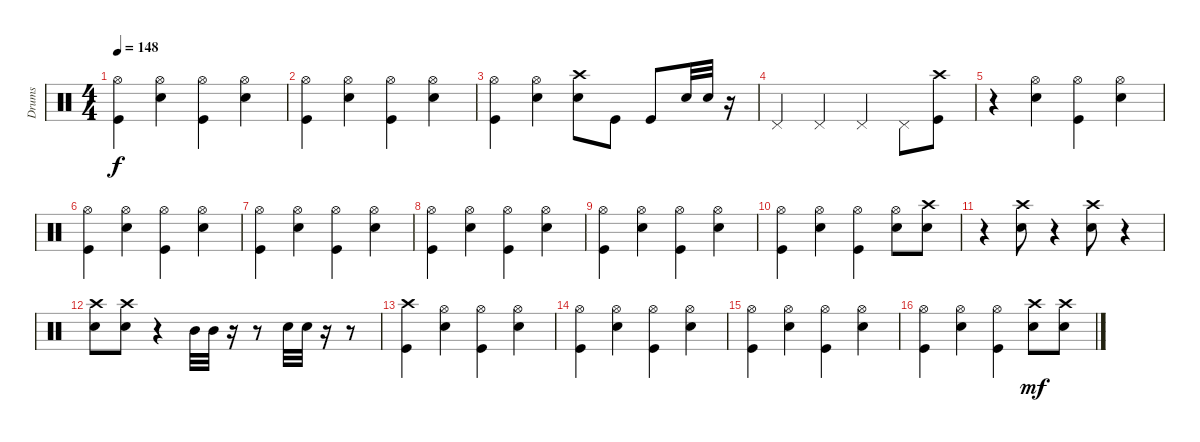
\track ("Drums" "Drums") {instrument percussion}
\staff {score}
\articulation defaults
\ts (4 4)
\tempo 148
\clef neutral
\ks c
("Hi-Hat (open)" "Kick (hit)").4{dy f} ("Hi-Hat (open)" "Snare (hit) 2").4 ("Hi-Hat (open)" "Kick (hit)").4 ("Hi-Hat (open)" "Snare (hit) 2").4 |
("Hi-Hat (open)" "Kick (hit)").4 ("Hi-Hat (open)" "Snare (hit) 2").4 ("Hi-Hat (open)" "Kick (hit)").4 ("Hi-Hat (open)" "Snare (hit) 2").4 |
("Hi-Hat (open)" "Kick (hit)").4 ("Hi-Hat (open)" "Snare (hit) 2").4 ("Crash high (hit)" "Snare (hit) 2").8 "Kick (hit)".8 "Kick (hit)".8 "Snare (hit) 2".32 "Snare (hit) 2".32 r.16 |
"Pedal Hi-Hat (hit)".4 "Pedal Hi-Hat (hit)".4 "Pedal Hi-Hat (hit)".4 "Pedal Hi-Hat (hit)".8 ("Crash high (hit)" "Kick (hit)").8 |
r.4 ("Hi-Hat (open)" "Snare (hit) 2").4 ("Hi-Hat (open)" "Kick (hit)").4 ("Hi-Hat (open)" "Snare (hit) 2").4 |
("Hi-Hat (open)" "Kick (hit)").4 ("Hi-Hat (open)" "Snare (hit) 2").4 ("Hi-Hat (open)" "Kick (hit)").4 ("Hi-Hat (open)" "Snare (hit) 2").4 |
("Hi-Hat (open)" "Kick (hit)").4 ("Hi-Hat (open)" "Snare (hit) 2").4 ("Hi-Hat (open)" "Kick (hit)").4 ("Hi-Hat (open)" "Snare (hit) 2").4 |
("Hi-Hat (open)" "Kick (hit)").4 ("Hi-Hat (open)" "Snare (hit) 2").4 ("Hi-Hat (open)" "Kick (hit)").4 ("Hi-Hat (open)" "Snare (hit) 2").4 |
("Hi-Hat (open)" "Kick (hit)").4 ("Hi-Hat (open)" "Snare (hit) 2").4 ("Hi-Hat (open)" "Kick (hit)").4 ("Hi-Hat (open)" "Snare (hit) 2").4 |
("Hi-Hat (open)" "Kick (hit)").4 ("Hi-Hat (open)" "Snare (hit) 2").4 ("Hi-Hat (open)" "Kick (hit)").4 ("Hi-Hat (open)" "Snare (hit) 2").8 ("Crash high (hit)" "Snare (hit) 2").8 |
r.4 ("Crash high (hit)" "Snare (hit) 2").8 r.4 ("Crash high (hit)" "Snare (hit) 2").8 r.4 |
("Crash high (hit)" "Snare (hit) 2").8 ("Crash high (hit)" "Snare (hit) 2").8 r.4 "Mid Tom (hit)".32 "Mid Tom (hit)".32 r.16 r.8 "Snare (hit) 2".32 "Snare (hit) 2".32 r.16 r.8 |
("Crash high (hit)" "Kick (hit)").4 ("Hi-Hat (open)" "Snare (hit) 2").4 ("Hi-Hat (open)" "Kick (hit)").4 ("Hi-Hat (open)" "Snare (hit) 2").4 |
("Hi-Hat (open)" "Kick (hit)").4 ("Hi-Hat (open)" "Snare (hit) 2").4 ("Hi-Hat (open)" "Kick (hit)").4 ("Hi-Hat (open)" "Snare (hit) 2").4 |
("Hi-Hat (open)" "Kick (hit)").4 ("Hi-Hat (open)" "Snare (hit) 2").4 ("Hi-Hat (open)" "Kick (hit)").4 ("Hi-Hat (open)" "Snare (hit) 2").4 |
("Hi-Hat (open)" "Kick (hit)").4 ("Hi-Hat (open)" "Snare (hit) 2").4 ("Hi-Hat (open)" "Kick (hit)").4 ("Crash high (hit)" "Snare (hit) 2").8{dy mf} ("Crash high (hit)" "Snare (hit) 2").8
